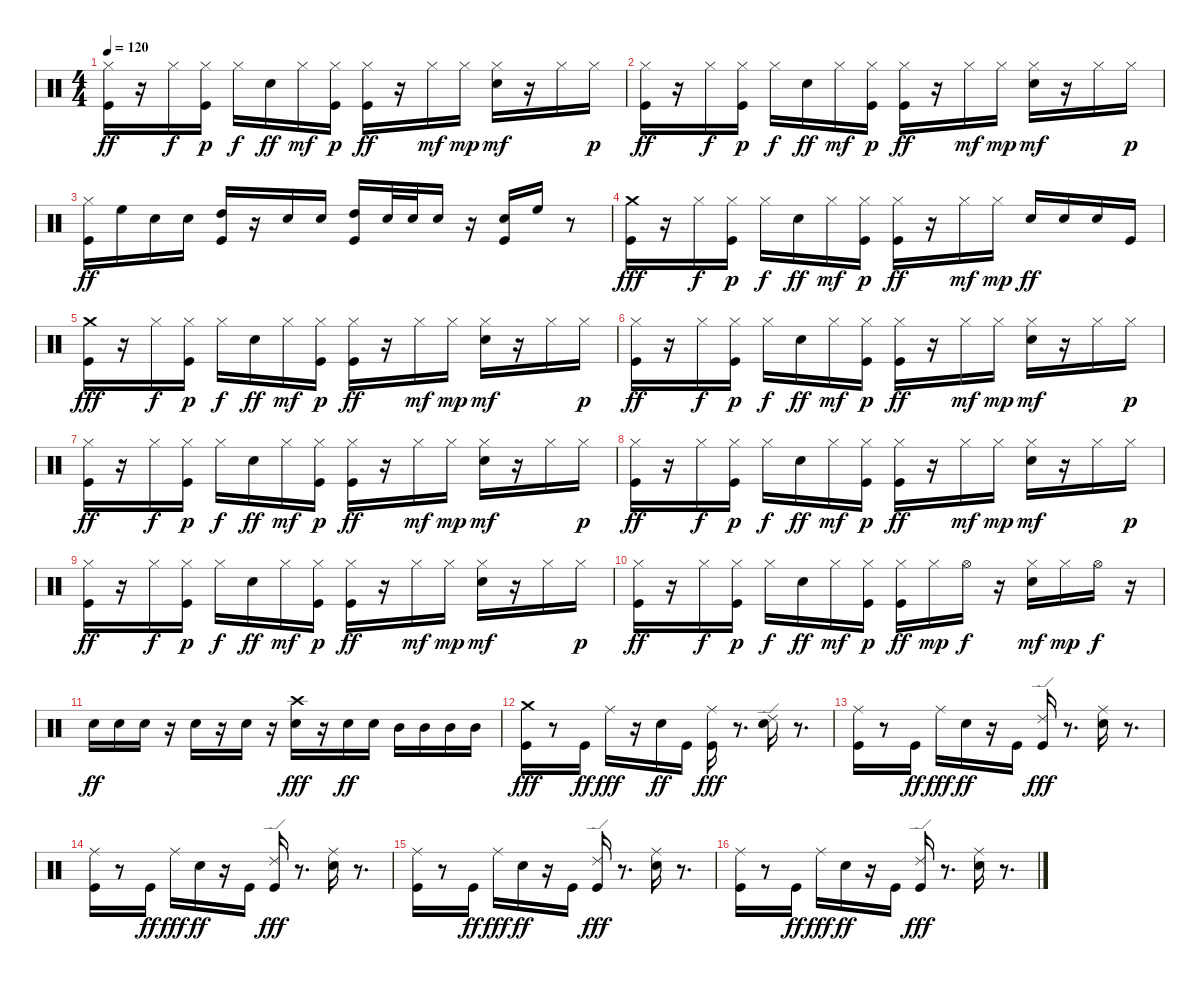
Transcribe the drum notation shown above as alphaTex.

\track "" {instrument percussion}
\staff {score}
\articulation defaults
\ts (4 4)
\tempo 120
\clef neutral
\ks c
("Kick (hit)" "Hi-Hat (closed)").16{dy ff} r.16 "Hi-Hat (closed)".16{dy f} ("Kick (hit)" "Hi-Hat (closed)").16{dy p} "Hi-Hat (closed)".16{dy f} "Electric Snare (hit)".16{dy ff} "Hi-Hat (closed)".16{dy mf} ("Kick (hit)" "Hi-Hat (closed)").16{dy p} ("Kick (hit)" "Hi-Hat (closed)").16{dy ff} r.16 "Hi-Hat (closed)".16{dy mf} "Hi-Hat (closed)".16{dy mp} ("Electric Snare (hit)" "Hi-Hat (closed)").16{dy mf} r.16 "Hi-Hat (closed)".16 "Hi-Hat (closed)".16{dy p} |
("Kick (hit)" "Hi-Hat (closed)").16{dy ff} r.16 "Hi-Hat (closed)".16{dy f} ("Kick (hit)" "Hi-Hat (closed)").16{dy p} "Hi-Hat (closed)".16{dy f} "Electric Snare (hit)".16{dy ff} "Hi-Hat (closed)".16{dy mf} ("Kick (hit)" "Hi-Hat (closed)").16{dy p} ("Kick (hit)" "Hi-Hat (closed)").16{dy ff} r.16 "Hi-Hat (closed)".16{dy mf} "Hi-Hat (closed)".16{dy mp} ("Electric Snare (hit)" "Hi-Hat (closed)").16{dy mf} r.16 "Hi-Hat (closed)".16 "Hi-Hat (closed)".16{dy p} |
("Kick (hit)" "Hi-Hat (closed)").16{dy ff} "High Floor Tom (hit)".16 "Electric Snare (hit)".16 "Electric Snare (hit)".16 ("High Tom (hit)" "Kick (hit)").16 r.16 "Electric Snare (hit)".16 "Electric Snare (hit)".16 ("High Tom (hit)" "Kick (hit)").16 "Electric Snare (hit)".32 "Electric Snare (hit)".32 "Electric Snare (hit)".16 r.16 ("Electric Snare (hit)" "Kick (hit)").16 "High Floor Tom (hit)".16 r.8 |
("Kick (hit)" "Crash medium (hit)").16{dy fff} r.16 "Hi-Hat (closed)".16{dy f} ("Kick (hit)" "Hi-Hat (closed)").16{dy p} "Hi-Hat (closed)".16{dy f} "Electric Snare (hit)".16{dy ff} "Hi-Hat (closed)".16{dy mf} ("Kick (hit)" "Hi-Hat (closed)").16{dy p} ("Kick (hit)" "Hi-Hat (closed)").16{dy ff} r.16 "Hi-Hat (closed)".16{dy mf} "Hi-Hat (closed)".16{dy mp} "Electric Snare (hit)".16{dy ff} "Electric Snare (hit)".16 "Electric Snare (hit)".16 "Kick (hit)".16 |
("Kick (hit)" "Crash medium (hit)").16{dy fff} r.16 "Hi-Hat (closed)".16{dy f} ("Kick (hit)" "Hi-Hat (closed)").16{dy p} "Hi-Hat (closed)".16{dy f} "Electric Snare (hit)".16{dy ff} "Hi-Hat (closed)".16{dy mf} ("Kick (hit)" "Hi-Hat (closed)").16{dy p} ("Kick (hit)" "Hi-Hat (closed)").16{dy ff} r.16 "Hi-Hat (closed)".16{dy mf} "Hi-Hat (closed)".16{dy mp} ("Electric Snare (hit)" "Hi-Hat (closed)").16{dy mf} r.16 "Hi-Hat (closed)".16 "Hi-Hat (closed)".16{dy p} |
("Kick (hit)" "Hi-Hat (closed)").16{dy ff} r.16 "Hi-Hat (closed)".16{dy f} ("Kick (hit)" "Hi-Hat (closed)").16{dy p} "Hi-Hat (closed)".16{dy f} "Electric Snare (hit)".16{dy ff} "Hi-Hat (closed)".16{dy mf} ("Kick (hit)" "Hi-Hat (closed)").16{dy p} ("Kick (hit)" "Hi-Hat (closed)").16{dy ff} r.16 "Hi-Hat (closed)".16{dy mf} "Hi-Hat (closed)".16{dy mp} ("Electric Snare (hit)" "Hi-Hat (closed)").16{dy mf} r.16 "Hi-Hat (closed)".16 "Hi-Hat (closed)".16{dy p} |
("Kick (hit)" "Hi-Hat (closed)").16{dy ff} r.16 "Hi-Hat (closed)".16{dy f} ("Kick (hit)" "Hi-Hat (closed)").16{dy p} "Hi-Hat (closed)".16{dy f} "Electric Snare (hit)".16{dy ff} "Hi-Hat (closed)".16{dy mf} ("Kick (hit)" "Hi-Hat (closed)").16{dy p} ("Kick (hit)" "Hi-Hat (closed)").16{dy ff} r.16 "Hi-Hat (closed)".16{dy mf} "Hi-Hat (closed)".16{dy mp} ("Electric Snare (hit)" "Hi-Hat (closed)").16{dy mf} r.16 "Hi-Hat (closed)".16 "Hi-Hat (closed)".16{dy p} |
("Kick (hit)" "Hi-Hat (closed)").16{dy ff} r.16 "Hi-Hat (closed)".16{dy f} ("Kick (hit)" "Hi-Hat (closed)").16{dy p} "Hi-Hat (closed)".16{dy f} "Electric Snare (hit)".16{dy ff} "Hi-Hat (closed)".16{dy mf} ("Kick (hit)" "Hi-Hat (closed)").16{dy p} ("Kick (hit)" "Hi-Hat (closed)").16{dy ff} r.16 "Hi-Hat (closed)".16{dy mf} "Hi-Hat (closed)".16{dy mp} ("Electric Snare (hit)" "Hi-Hat (closed)").16{dy mf} r.16 "Hi-Hat (closed)".16 "Hi-Hat (closed)".16{dy p} |
("Kick (hit)" "Hi-Hat (closed)").16{dy ff} r.16 "Hi-Hat (closed)".16{dy f} ("Kick (hit)" "Hi-Hat (closed)").16{dy p} "Hi-Hat (closed)".16{dy f} "Electric Snare (hit)".16{dy ff} "Hi-Hat (closed)".16{dy mf} ("Kick (hit)" "Hi-Hat (closed)").16{dy p} ("Kick (hit)" "Hi-Hat (closed)").16{dy ff} r.16 "Hi-Hat (closed)".16{dy mf} "Hi-Hat (closed)".16{dy mp} ("Electric Snare (hit)" "Hi-Hat (closed)").16{dy mf} r.16 "Hi-Hat (closed)".16 "Hi-Hat (closed)".16{dy p} |
("Kick (hit)" "Hi-Hat (closed)").16{dy ff} r.16 "Hi-Hat (closed)".16{dy f} ("Kick (hit)" "Hi-Hat (closed)").16{dy p} "Hi-Hat (closed)".16{dy f} "Electric Snare (hit)".16{dy ff} "Hi-Hat (closed)".16{dy mf} ("Kick (hit)" "Hi-Hat (closed)").16{dy p} ("Kick (hit)" "Hi-Hat (closed)").16{dy ff} "Hi-Hat (closed)".16{dy mp} "Hi-Hat (open)".16{dy f} r.16 ("Electric Snare (hit)" "Hi-Hat (closed)").16{dy mf} "Hi-Hat (closed)".16{dy mp} "Hi-Hat (open)".16{dy f} r.16 |
"Electric Snare (hit)".16{dy ff} "Electric Snare (hit)".16 "Electric Snare (hit)".16 r.16 "Electric Snare (hit)".16 r.16 "Electric Snare (hit)".16 r.16 ("Electric Snare (hit)" "Crash high (hit)").16{dy fff} r.16 "Electric Snare (hit)".16{dy ff} "Electric Snare (hit)".16 "Mid Tom (hit)".16 "Mid Tom (hit)".16 "Mid Tom (hit)".16 "Mid Tom (hit)".16 |
("Kick (hit)" "Crash medium (hit)").16{dy fff} r.8 "Kick (hit)".16{dy ff} "Ride (middle)".16{dy fff} r.16 "Electric Snare (hit)".16{dy ff} "Kick (hit)".16 ("Kick (hit)" "Ride (middle)").16{dy fff} r.8{d} ("Electric Snare (hit)" "Ride (edge) 2").16 r.8{d} |
("Kick (hit)" "Ride (middle)").16 r.8 "Kick (hit)".16{dy ff} "Ride (middle)".16{dy fff} "Electric Snare (hit)".16{dy ff} r.16 "Kick (hit)".16 ("Kick (hit)" "Ride (edge) 2").16{dy fff} r.8{d} ("Electric Snare (hit)" "Ride (middle)").16 r.8{d} |
("Kick (hit)" "Ride (middle)").16 r.8 "Kick (hit)".16{dy ff} "Ride (middle)".16{dy fff} "Electric Snare (hit)".16{dy ff} r.16 "Kick (hit)".16 ("Kick (hit)" "Ride (edge) 2").16{dy fff} r.8{d} ("Electric Snare (hit)" "Ride (middle)").16 r.8{d} |
("Kick (hit)" "Ride (middle)").16 r.8 "Kick (hit)".16{dy ff} "Ride (middle)".16{dy fff} "Electric Snare (hit)".16{dy ff} r.16 "Kick (hit)".16 ("Kick (hit)" "Ride (edge) 2").16{dy fff} r.8{d} ("Electric Snare (hit)" "Ride (middle)").16 r.8{d} |
("Kick (hit)" "Ride (middle)").16 r.8 "Kick (hit)".16{dy ff} "Ride (middle)".16{dy fff} "Electric Snare (hit)".16{dy ff} r.16 "Kick (hit)".16 ("Kick (hit)" "Ride (edge) 2").16{dy fff} r.8{d} ("Electric Snare (hit)" "Ride (middle)").16 r.8{d}
